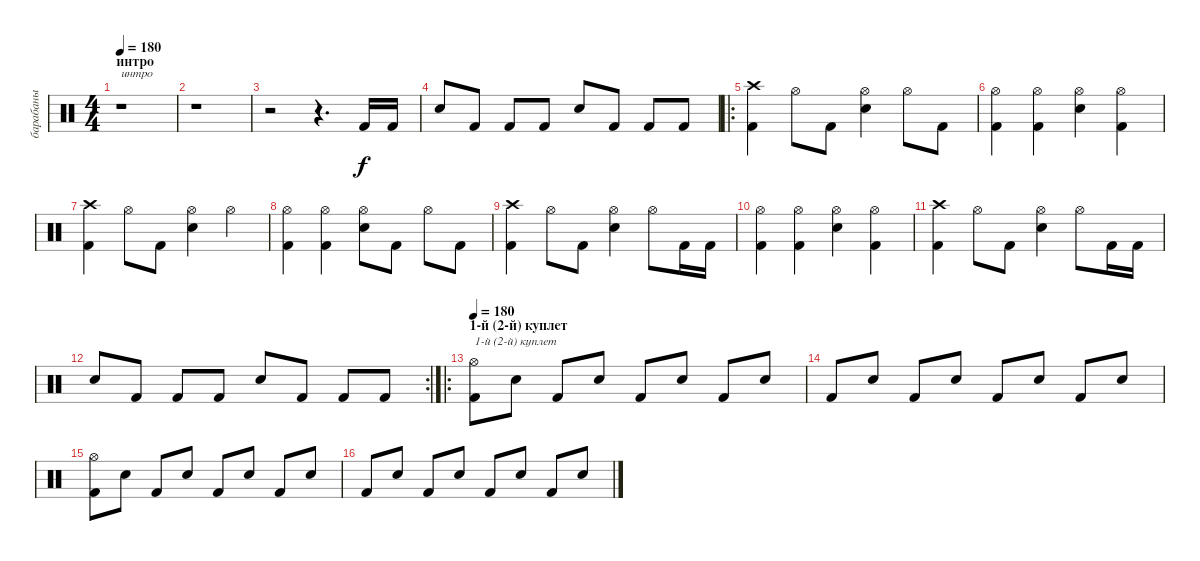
\track ("барабаны" "барабаны") {instrument percussion}
\staff {score}
\articulation defaults
\ts (4 4)
\section ("" "интро")
\tempo 180
\tempo 120
\tempo 180
\clef neutral
\ks c
r.1{txt "интро" dy f} |
r.1 |
r.2 r.4{d} "Kick (hit) 2".16 "Kick (hit) 2".16 |
"Snare (hit) 2".8 "Kick (hit) 2".8 "Kick (hit) 2".8 "Kick (hit) 2".8 "Snare (hit) 2".8 "Kick (hit) 2".8 "Kick (hit) 2".8 "Kick (hit) 2".8 |
\ro
("Crash high (hit)" "Kick (hit) 2").4 "Hi-Hat (open)".8 "Kick (hit) 2".8 ("Hi-Hat (open)" "Snare (hit) 2").4 "Hi-Hat (open)".8 "Kick (hit) 2".8 |
("Hi-Hat (open)" "Kick (hit) 2").4 ("Hi-Hat (open)" "Kick (hit) 2").4 ("Hi-Hat (open)" "Snare (hit) 2").4 ("Hi-Hat (open)" "Kick (hit) 2").4 |
("Crash high (hit)" "Kick (hit) 2").4 "Hi-Hat (open)".8 "Kick (hit) 2".8 ("Hi-Hat (open)" "Snare (hit) 2").4 "Hi-Hat (open)".4 |
("Hi-Hat (open)" "Kick (hit) 2").4 ("Hi-Hat (open)" "Kick (hit) 2").4 ("Hi-Hat (open)" "Snare (hit) 2").8 "Kick (hit) 2".8 "Hi-Hat (open)".8 "Kick (hit) 2".8 |
("Crash high (hit)" "Kick (hit) 2").4 "Hi-Hat (open)".8 "Kick (hit) 2".8 ("Hi-Hat (open)" "Snare (hit) 2").4 "Hi-Hat (open)".8 "Kick (hit) 2".16 "Kick (hit) 2".16 |
("Hi-Hat (open)" "Kick (hit) 2").4 ("Hi-Hat (open)" "Kick (hit) 2").4 ("Hi-Hat (open)" "Snare (hit) 2").4 ("Hi-Hat (open)" "Kick (hit) 2").4 |
("Crash high (hit)" "Kick (hit) 2").4 "Hi-Hat (open)".8 "Kick (hit) 2".8 ("Hi-Hat (open)" "Snare (hit) 2").4 "Hi-Hat (open)".8 "Kick (hit) 2".16 "Kick (hit) 2".16 |
\rc 2 "Snare (hit) 2".8 "Kick (hit) 2".8 "Kick (hit) 2".8 "Kick (hit) 2".8 "Snare (hit) 2".8 "Kick (hit) 2".8 "Kick (hit) 2".8 "Kick (hit) 2".8
|
\ro
\section ("" "1-й (2-й) куплет")
\tempo 180
("Hi-Hat (open)" "Kick (hit) 2").8{txt "1-й (2-й) куплет"} "Snare (hit) 2".8 "Kick (hit) 2".8 "Snare (hit) 2".8 "Kick (hit) 2".8 "Snare (hit) 2".8 "Kick (hit) 2".8 "Snare (hit) 2".8 |
"Kick (hit) 2".8 "Snare (hit) 2".8 "Kick (hit) 2".8 "Snare (hit) 2".8 "Kick (hit) 2".8 "Snare (hit) 2".8 "Kick (hit) 2".8 "Snare (hit) 2".8 |
("Hi-Hat (open)" "Kick (hit) 2").8 "Snare (hit) 2".8 "Kick (hit) 2".8 "Snare (hit) 2".8 "Kick (hit) 2".8 "Snare (hit) 2".8 "Kick (hit) 2".8 "Snare (hit) 2".8 |
"Kick (hit) 2".8 "Snare (hit) 2".8 "Kick (hit) 2".8 "Snare (hit) 2".8 "Kick (hit) 2".8 "Snare (hit) 2".8 "Kick (hit) 2".8 "Snare (hit) 2".8
